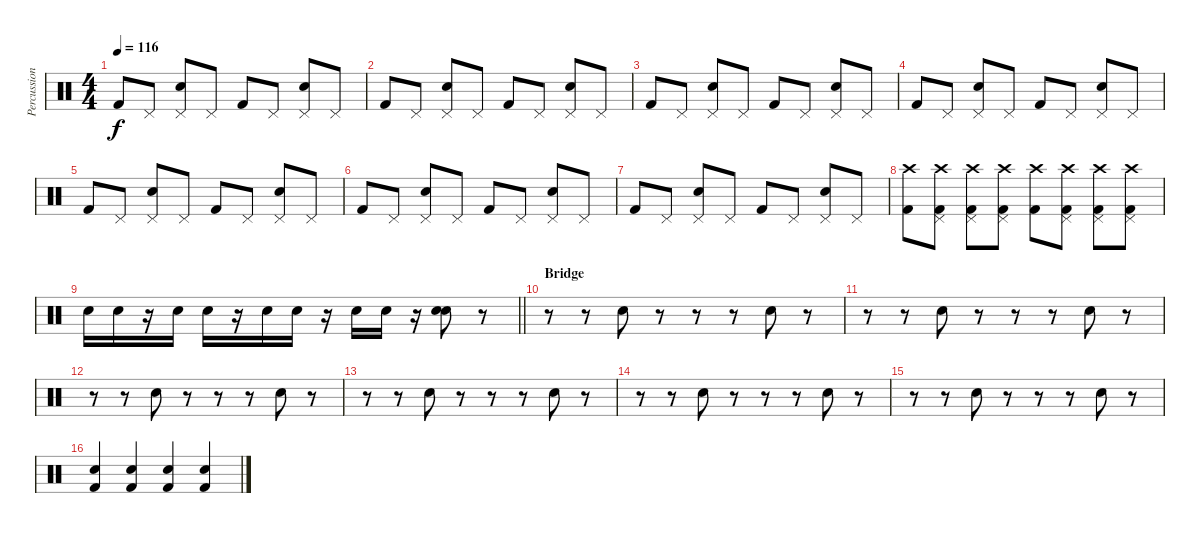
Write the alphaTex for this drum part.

\track ("Percussion" "Percussion") {instrument percussion}
\staff {score}
\articulation defaults
\ts (4 4)
\tempo 116
\clef neutral
\ks c "Kick (hit) 2".8{dy f} "Pedal Hi-Hat (hit)".8
("Pedal Hi-Hat (hit)" "Snare (hit) 2").8 "Pedal Hi-Hat (hit)".8 "Kick (hit) 2".8 "Pedal Hi-Hat (hit)".8 ("Pedal Hi-Hat (hit)" "Snare (hit) 2").8 "Pedal Hi-Hat (hit)".8 |
"Kick (hit) 2".8 "Pedal Hi-Hat (hit)".8 ("Pedal Hi-Hat (hit)" "Snare (hit) 2").8 "Pedal Hi-Hat (hit)".8 "Kick (hit) 2".8 "Pedal Hi-Hat (hit)".8 ("Pedal Hi-Hat (hit)" "Snare (hit) 2").8 "Pedal Hi-Hat (hit)".8 |
"Kick (hit) 2".8 "Pedal Hi-Hat (hit)".8 ("Pedal Hi-Hat (hit)" "Snare (hit) 2").8 "Pedal Hi-Hat (hit)".8 "Kick (hit) 2".8 "Pedal Hi-Hat (hit)".8 ("Pedal Hi-Hat (hit)" "Snare (hit) 2").8 "Pedal Hi-Hat (hit)".8 |
"Kick (hit) 2".8 "Pedal Hi-Hat (hit)".8 ("Pedal Hi-Hat (hit)" "Snare (hit) 2").8 "Pedal Hi-Hat (hit)".8 "Kick (hit) 2".8 "Pedal Hi-Hat (hit)".8 ("Pedal Hi-Hat (hit)" "Snare (hit) 2").8 "Pedal Hi-Hat (hit)".8 |
"Kick (hit) 2".8 "Pedal Hi-Hat (hit)".8 ("Pedal Hi-Hat (hit)" "Snare (hit) 2").8 "Pedal Hi-Hat (hit)".8 "Kick (hit) 2".8 "Pedal Hi-Hat (hit)".8 ("Pedal Hi-Hat (hit)" "Snare (hit) 2").8 "Pedal Hi-Hat (hit)".8 |
"Kick (hit) 2".8 "Pedal Hi-Hat (hit)".8 ("Pedal Hi-Hat (hit)" "Snare (hit) 2").8 "Pedal Hi-Hat (hit)".8 "Kick (hit) 2".8 "Pedal Hi-Hat (hit)".8 ("Pedal Hi-Hat (hit)" "Snare (hit) 2").8 "Pedal Hi-Hat (hit)".8 |
"Kick (hit) 2".8 "Pedal Hi-Hat (hit)".8 ("Pedal Hi-Hat (hit)" "Snare (hit) 2").8 "Pedal Hi-Hat (hit)".8 "Kick (hit) 2".8 "Pedal Hi-Hat (hit)".8 ("Pedal Hi-Hat (hit)" "Snare (hit) 2").8 "Pedal Hi-Hat (hit)".8 |
("Crash high (hit)" "Kick (hit) 2").8 ("Crash high (hit)" "Pedal Hi-Hat (hit)" "Kick (hit) 2").8 ("Crash high (hit)" "Pedal Hi-Hat (hit)" "Kick (hit) 2").8 ("Crash high (hit)" "Pedal Hi-Hat (hit)" "Kick (hit) 2").8 ("Crash high (hit)" "Kick (hit) 2").8 ("Crash high (hit)" "Pedal Hi-Hat (hit)" "Kick (hit) 2").8 ("Crash high (hit)" "Pedal Hi-Hat (hit)" "Kick (hit) 2").8 ("Crash high (hit)" "Pedal Hi-Hat (hit)" "Kick (hit) 2").8 |
\barLineRight lightlight "Snare (hit) 2".16 "Snare (hit) 2".16
r.16 "Snare (hit) 2".16 "Snare (hit) 2".16 r.16 "Snare (hit) 2".16 "Snare (hit) 2".16 r.16 "Snare (hit) 2".16 "Snare (hit) 2".16 r.16 ("Hand Clap (hit)" "Snare (hit) 2").8 r.8 |
\section ("" "Bridge")
r.8 r.8 "Hand Clap (hit)".8 r.8 r.8 r.8 "Hand Clap (hit)".8 r.8 |
r.8 r.8 "Hand Clap (hit)".8 r.8 r.8 r.8 "Hand Clap (hit)".8 r.8 |
r.8 r.8 "Hand Clap (hit)".8 r.8 r.8 r.8 "Hand Clap (hit)".8 r.8 |
r.8 r.8 "Hand Clap (hit)".8 r.8 r.8 r.8 "Hand Clap (hit)".8 r.8 |
r.8 r.8 "Hand Clap (hit)".8 r.8 r.8 r.8 "Hand Clap (hit)".8 r.8 |
r.8 r.8 "Hand Clap (hit)".8 r.8 r.8 r.8 "Hand Clap (hit)".8 r.8 |
("Snare (hit) 2" "Kick (hit) 2").4 ("Snare (hit) 2" "Kick (hit) 2").4 ("Snare (hit) 2" "Kick (hit) 2").4 ("Snare (hit) 2" "Kick (hit) 2").4
